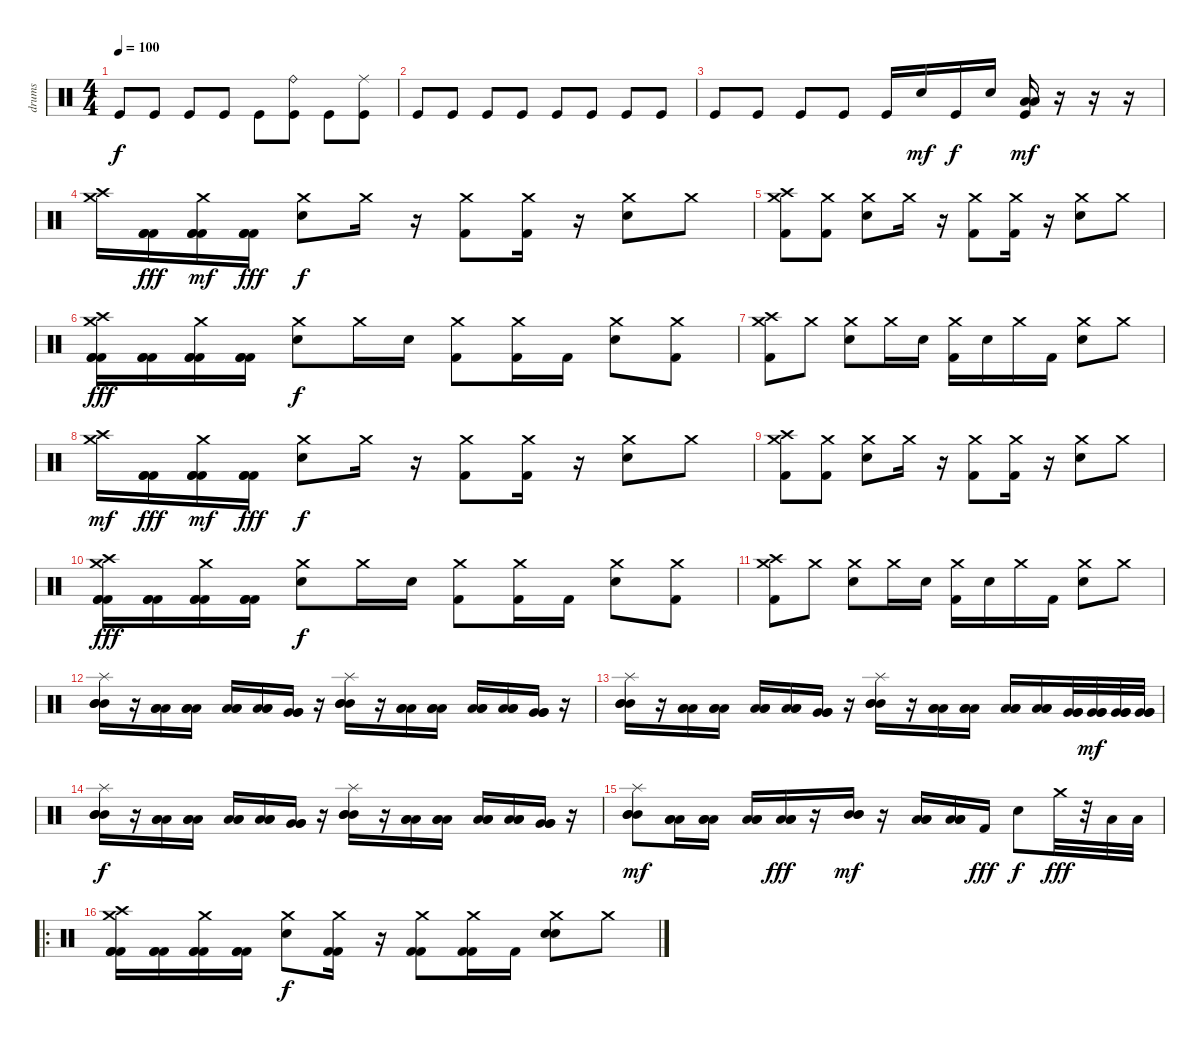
\track ("drums" "drums") {instrument percussion}
\staff {score}
\articulation defaults
\ts (4 4)
\tempo 100
\clef neutral
\ks c "Kick (hit)".8{dy f} "Kick (hit)".8 "Kick (hit)".8 "Kick (hit)".8 "Kick (hit)".8
("Ride (bell)" "Kick (hit)").8 "Kick (hit)".8 ("Ride (middle)" "Kick (hit)").8 |
"Kick (hit)".8 "Kick (hit)".8 "Kick (hit)".8 "Kick (hit)".8 "Kick (hit)".8 "Kick (hit)".8 "Kick (hit)".8 "Kick (hit)".8 |
"Kick (hit)".8 "Kick (hit)".8 "Kick (hit)".8 "Kick (hit)".8 "Kick (hit)".16 "Electric Snare (hit)".16{dy mf} "Kick (hit)".16{dy f} "Electric Snare (hit)".16 ("Low Tom (hit)" "Low Floor Tom (hit)" "Kick (hit)").16{dy mf} r.16 r.16 r.16 |
("Crash high (hit)" "Crash medium (hit)").16 ("Kick (hit) 2" "Kick (hit) 2" "Kick (hit) 2").16{dy fff} ("Kick (hit) 2" "Kick (hit) 2" "Kick (hit) 2" "Crash medium (hit)").16{dy mf} ("Kick (hit) 2" "Kick (hit) 2" "Kick (hit) 2").16{dy fff} ("Crash medium (hit)" "Electric Snare (hit)").8{dy f} "Crash medium (hit)".16 r.16 ("Crash medium (hit)" "Kick (hit) 2").8 ("Crash medium (hit)" "Kick (hit) 2").16 r.16 ("Crash medium (hit)" "Electric Snare (hit)").8 "Crash medium (hit)".8 |
("Crash medium (hit)" "Crash high (hit)" "Kick (hit) 2").8 ("Crash medium (hit)" "Kick (hit) 2").8 ("Crash medium (hit)" "Electric Snare (hit)").8 "Crash medium (hit)".16 r.16 ("Crash medium (hit)" "Kick (hit) 2").8 ("Crash medium (hit)" "Kick (hit) 2").16 r.16 ("Crash medium (hit)" "Electric Snare (hit)").8 "Crash medium (hit)".8 |
("Kick (hit) 2" "Kick (hit) 2" "Kick (hit) 2" "Crash high (hit)" "Crash medium (hit)").16{dy fff} ("Kick (hit) 2" "Kick (hit) 2" "Kick (hit) 2").16 ("Kick (hit) 2" "Kick (hit) 2" "Kick (hit) 2" "Crash medium (hit)").16 ("Kick (hit) 2" "Kick (hit) 2" "Kick (hit) 2").16 ("Crash medium (hit)" "Electric Snare (hit)").8{dy f} "Crash medium (hit)".16 "Electric Snare (hit)".16 ("Crash medium (hit)" "Kick (hit) 2").8 ("Crash medium (hit)" "Kick (hit) 2").16 "Kick (hit) 2".16 ("Crash medium (hit)" "Electric Snare (hit)").8 ("Crash medium (hit)" "Kick (hit) 2").8 |
("Crash medium (hit)" "Crash high (hit)" "Kick (hit) 2").8 "Crash medium (hit)".8 ("Crash medium (hit)" "Electric Snare (hit)").8 "Crash medium (hit)".16 "Electric Snare (hit)".16 ("Crash medium (hit)" "Kick (hit) 2").16 "Electric Snare (hit)".16 "Crash medium (hit)".16 "Kick (hit) 2".16 ("Crash medium (hit)" "Electric Snare (hit)").8 "Crash medium (hit)".8 |
("Crash high (hit)" "Crash medium (hit)").16{dy mf} ("Kick (hit) 2" "Kick (hit) 2" "Kick (hit) 2").16{dy fff} ("Kick (hit) 2" "Kick (hit) 2" "Kick (hit) 2" "Crash medium (hit)").16{dy mf} ("Kick (hit) 2" "Kick (hit) 2" "Kick (hit) 2").16{dy fff} ("Crash medium (hit)" "Electric Snare (hit)").8{dy f} "Crash medium (hit)".16 r.16 ("Crash medium (hit)" "Kick (hit) 2").8 ("Crash medium (hit)" "Kick (hit) 2").16 r.16 ("Crash medium (hit)" "Electric Snare (hit)").8 "Crash medium (hit)".8 |
("Crash medium (hit)" "Crash high (hit)" "Kick (hit) 2").8 ("Crash medium (hit)" "Kick (hit) 2").8 ("Crash medium (hit)" "Electric Snare (hit)").8 "Crash medium (hit)".16 r.16 ("Crash medium (hit)" "Kick (hit) 2").8 ("Crash medium (hit)" "Kick (hit) 2").16 r.16 ("Crash medium (hit)" "Electric Snare (hit)").8 "Crash medium (hit)".8 |
("Kick (hit) 2" "Kick (hit) 2" "Kick (hit) 2" "Crash high (hit)" "Crash medium (hit)").16{dy fff} ("Kick (hit) 2" "Kick (hit) 2" "Kick (hit) 2").16 ("Kick (hit) 2" "Kick (hit) 2" "Kick (hit) 2" "Crash medium (hit)").16 ("Kick (hit) 2" "Kick (hit) 2" "Kick (hit) 2").16 ("Crash medium (hit)" "Electric Snare (hit)").8{dy f} "Crash medium (hit)".16 "Electric Snare (hit)".16 ("Crash medium (hit)" "Kick (hit) 2").8 ("Crash medium (hit)" "Kick (hit) 2").16 "Kick (hit) 2".16 ("Crash medium (hit)" "Electric Snare (hit)").8 ("Crash medium (hit)" "Kick (hit) 2").8 |
("Crash medium (hit)" "Crash high (hit)" "Kick (hit) 2").8 "Crash medium (hit)".8 ("Crash medium (hit)" "Electric Snare (hit)").8 "Crash medium (hit)".16 "Electric Snare (hit)".16 ("Crash medium (hit)" "Kick (hit) 2").16 "Electric Snare (hit)".16 "Crash medium (hit)".16 "Kick (hit) 2".16 ("Crash medium (hit)" "Electric Snare (hit)").8 "Crash medium (hit)".8 |
("Splash (hit)" "Mid Tom (hit)" "Mid Tom (hit)" "Mid Tom (hit)").16 r.16 ("Low Tom (hit)" "Low Tom (hit)" "Low Tom (hit)").16 ("Low Tom (hit)" "Low Tom (hit)" "Low Tom (hit)").16 ("Low Tom (hit)" "Low Tom (hit)" "Low Tom (hit)").16 ("Low Tom (hit)" "Low Tom (hit)" "Low Tom (hit)").16 ("Very Low Tom (hit)" "Very Low Tom (hit)" "Very Low Tom (hit)").16 r.16 ("Splash (hit)" "Mid Tom (hit)" "Mid Tom (hit)" "Mid Tom (hit)").16 r.16 ("Low Tom (hit)" "Low Tom (hit)" "Low Tom (hit)").16 ("Low Tom (hit)" "Low Tom (hit)" "Low Tom (hit)").16 ("Low Tom (hit)" "Low Tom (hit)" "Low Tom (hit)").16 ("Low Tom (hit)" "Low Tom (hit)" "Low Tom (hit)").16 ("Very Low Tom (hit)" "Very Low Tom (hit)" "Very Low Tom (hit)").16 r.16 |
("Splash (hit)" "Mid Tom (hit)" "Mid Tom (hit)" "Mid Tom (hit)").16 r.16 ("Low Tom (hit)" "Low Tom (hit)" "Low Tom (hit)").16 ("Low Tom (hit)" "Low Tom (hit)" "Low Tom (hit)").16 ("Low Tom (hit)" "Low Tom (hit)" "Low Tom (hit)").16 ("Low Tom (hit)" "Low Tom (hit)" "Low Tom (hit)").16 ("Very Low Tom (hit)" "Very Low Tom (hit)" "Very Low Tom (hit)").16 r.16 ("Splash (hit)" "Mid Tom (hit)" "Mid Tom (hit)" "Mid Tom (hit)").16 r.16 ("Low Tom (hit)" "Low Tom (hit)" "Low Tom (hit)").16 ("Low Tom (hit)" "Low Tom (hit)" "Low Tom (hit)").16 ("Low Tom (hit)" "Low Tom (hit)" "Low Tom (hit)").16 ("Low Tom (hit)" "Low Tom (hit)" "Low Tom (hit)").16 ("Very Low Tom (hit)" "Very Low Tom (hit)" "Very Low Tom (hit)").32 ("Very Low Tom (hit)" "Very Low Tom (hit)" "Very Low Tom (hit)").32{dy mf} ("Very Low Tom (hit)" "Very Low Tom (hit)" "Very Low Tom (hit)").32 ("Very Low Tom (hit)" "Very Low Tom (hit)" "Very Low Tom (hit)").32 |
("Splash (hit)" "Mid Tom (hit)" "Mid Tom (hit)" "Mid Tom (hit)").16{dy f} r.16 ("Low Tom (hit)" "Low Tom (hit)" "Low Tom (hit)").16 ("Low Tom (hit)" "Low Tom (hit)" "Low Tom (hit)").16 ("Low Tom (hit)" "Low Tom (hit)" "Low Tom (hit)").16 ("Low Tom (hit)" "Low Tom (hit)" "Low Tom (hit)").16 ("Very Low Tom (hit)" "Very Low Tom (hit)" "Very Low Tom (hit)").16 r.16 ("Splash (hit)" "Mid Tom (hit)" "Mid Tom (hit)" "Mid Tom (hit)").16 r.16 ("Low Tom (hit)" "Low Tom (hit)" "Low Tom (hit)").16 ("Low Tom (hit)" "Low Tom (hit)" "Low Tom (hit)").16 ("Low Tom (hit)" "Low Tom (hit)" "Low Tom (hit)").16 ("Low Tom (hit)" "Low Tom (hit)" "Low Tom (hit)").16 ("Very Low Tom (hit)" "Very Low Tom (hit)" "Very Low Tom (hit)").16 r.16 |
("Splash (hit)" "Mid Tom (hit)" "Mid Tom (hit)" "Mid Tom (hit)").8{dy mf} ("Low Tom (hit)" "Low Tom (hit)" "Low Tom (hit)").16 ("Low Tom (hit)" "Low Tom (hit)" "Low Tom (hit)").16 ("Low Tom (hit)" "Low Tom (hit)" "Low Tom (hit)").16 ("Low Tom (hit)" "Low Tom (hit)" "Low Tom (hit)").16{dy fff} r.16 ("Mid Tom (hit)" "Mid Tom (hit)" "Mid Tom (hit)").16{dy mf} r.16 ("Low Tom (hit)" "Low Tom (hit)" "Low Tom (hit)").16 ("Low Tom (hit)" "Low Tom (hit)" "Low Tom (hit)").16 "Kick (hit) 2".16{dy fff} "Electric Snare (hit)".8{dy f} "Crash medium (hit)".32{dy fff} r.32 "Low Tom (hit)".32 "Low Tom (hit)".32 |
\ro
("Kick (hit) 2" "Kick (hit) 2" "Kick (hit) 2" "Crash high (hit)" "Crash medium (hit)").16 ("Kick (hit) 2" "Kick (hit) 2" "Kick (hit) 2").16 ("Kick (hit) 2" "Kick (hit) 2" "Kick (hit) 2" "Crash medium (hit)").16 ("Kick (hit) 2" "Kick (hit) 2" "Kick (hit) 2").16 ("Crash medium (hit)" "Electric Snare (hit)").8{dy f} ("Crash medium (hit)" "Kick (hit) 2" "Kick (hit) 2").16 r.16 ("Crash medium (hit)" "Kick (hit) 2" "Kick (hit) 2").8 ("Crash medium (hit)" "Kick (hit) 2" "Kick (hit) 2").16 "Kick (hit) 2".16 ("Crash medium (hit)" "Electric Snare (hit)" "Electric Snare (hit)").8 "Crash medium (hit)".8
